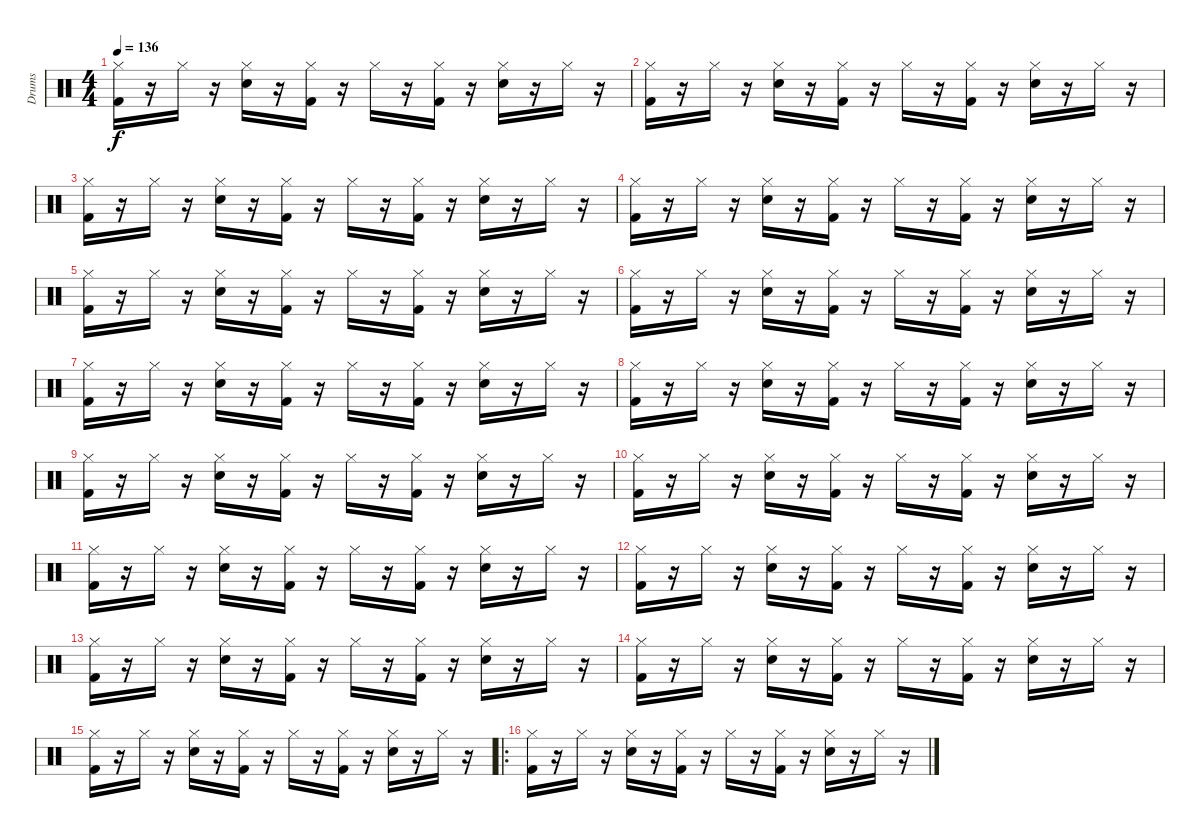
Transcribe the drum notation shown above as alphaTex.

\track ("Drums" "Drums") {instrument percussion}
\staff {score}
\articulation defaults
\ts (4 4)
\tempo 136
\clef neutral
\ks c
("Kick (hit) 2" "Hi-Hat (closed)").16{dy f} r.16 "Hi-Hat (closed)".16 r.16 ("Electric Snare (hit)" "Hi-Hat (closed)").16 r.16 ("Kick (hit) 2" "Hi-Hat (closed)").16 r.16 "Hi-Hat (closed)".16 r.16 ("Kick (hit) 2" "Hi-Hat (closed)").16 r.16 ("Electric Snare (hit)" "Hi-Hat (closed)").16 r.16 "Hi-Hat (closed)".16 r.16 |
("Kick (hit) 2" "Hi-Hat (closed)").16 r.16 "Hi-Hat (closed)".16 r.16 ("Electric Snare (hit)" "Hi-Hat (closed)").16 r.16 ("Kick (hit) 2" "Hi-Hat (closed)").16 r.16 "Hi-Hat (closed)".16 r.16 ("Kick (hit) 2" "Hi-Hat (closed)").16 r.16 ("Electric Snare (hit)" "Hi-Hat (closed)").16 r.16 "Hi-Hat (closed)".16 r.16 |
("Kick (hit) 2" "Hi-Hat (closed)").16 r.16 "Hi-Hat (closed)".16 r.16 ("Electric Snare (hit)" "Hi-Hat (closed)").16 r.16 ("Kick (hit) 2" "Hi-Hat (closed)").16 r.16 "Hi-Hat (closed)".16 r.16 ("Kick (hit) 2" "Hi-Hat (closed)").16 r.16 ("Electric Snare (hit)" "Hi-Hat (closed)").16 r.16 "Hi-Hat (closed)".16 r.16 |
("Kick (hit) 2" "Hi-Hat (closed)").16 r.16 "Hi-Hat (closed)".16 r.16 ("Electric Snare (hit)" "Hi-Hat (closed)").16 r.16 ("Kick (hit) 2" "Hi-Hat (closed)").16 r.16 "Hi-Hat (closed)".16 r.16 ("Kick (hit) 2" "Hi-Hat (closed)").16 r.16 ("Electric Snare (hit)" "Hi-Hat (closed)").16 r.16 "Hi-Hat (closed)".16 r.16 |
("Kick (hit) 2" "Hi-Hat (closed)").16 r.16 "Hi-Hat (closed)".16 r.16 ("Electric Snare (hit)" "Hi-Hat (closed)").16 r.16 ("Kick (hit) 2" "Hi-Hat (closed)").16 r.16 "Hi-Hat (closed)".16 r.16 ("Kick (hit) 2" "Hi-Hat (closed)").16 r.16 ("Electric Snare (hit)" "Hi-Hat (closed)").16 r.16 "Hi-Hat (closed)".16 r.16 |
("Kick (hit) 2" "Hi-Hat (closed)").16 r.16 "Hi-Hat (closed)".16 r.16 ("Electric Snare (hit)" "Hi-Hat (closed)").16 r.16 ("Kick (hit) 2" "Hi-Hat (closed)").16 r.16 "Hi-Hat (closed)".16 r.16 ("Kick (hit) 2" "Hi-Hat (closed)").16 r.16 ("Electric Snare (hit)" "Hi-Hat (closed)").16 r.16 "Hi-Hat (closed)".16 r.16 |
("Kick (hit) 2" "Hi-Hat (closed)").16 r.16 "Hi-Hat (closed)".16 r.16 ("Electric Snare (hit)" "Hi-Hat (closed)").16 r.16 ("Kick (hit) 2" "Hi-Hat (closed)").16 r.16 "Hi-Hat (closed)".16 r.16 ("Kick (hit) 2" "Hi-Hat (closed)").16 r.16 ("Electric Snare (hit)" "Hi-Hat (closed)").16 r.16 "Hi-Hat (closed)".16 r.16 |
("Kick (hit) 2" "Hi-Hat (closed)").16 r.16 "Hi-Hat (closed)".16 r.16 ("Electric Snare (hit)" "Hi-Hat (closed)").16 r.16 ("Kick (hit) 2" "Hi-Hat (closed)").16 r.16 "Hi-Hat (closed)".16 r.16 ("Kick (hit) 2" "Hi-Hat (closed)").16 r.16 ("Electric Snare (hit)" "Hi-Hat (closed)").16 r.16 "Hi-Hat (closed)".16 r.16 |
("Kick (hit) 2" "Hi-Hat (closed)").16 r.16 "Hi-Hat (closed)".16 r.16 ("Electric Snare (hit)" "Hi-Hat (closed)").16 r.16 ("Kick (hit) 2" "Hi-Hat (closed)").16 r.16 "Hi-Hat (closed)".16 r.16 ("Kick (hit) 2" "Hi-Hat (closed)").16 r.16 ("Electric Snare (hit)" "Hi-Hat (closed)").16 r.16 "Hi-Hat (closed)".16 r.16 |
("Kick (hit) 2" "Hi-Hat (closed)").16 r.16 "Hi-Hat (closed)".16 r.16 ("Electric Snare (hit)" "Hi-Hat (closed)").16 r.16 ("Kick (hit) 2" "Hi-Hat (closed)").16 r.16 "Hi-Hat (closed)".16 r.16 ("Kick (hit) 2" "Hi-Hat (closed)").16 r.16 ("Electric Snare (hit)" "Hi-Hat (closed)").16 r.16 "Hi-Hat (closed)".16 r.16 |
("Kick (hit) 2" "Hi-Hat (closed)").16 r.16 "Hi-Hat (closed)".16 r.16 ("Electric Snare (hit)" "Hi-Hat (closed)").16 r.16 ("Kick (hit) 2" "Hi-Hat (closed)").16 r.16 "Hi-Hat (closed)".16 r.16 ("Kick (hit) 2" "Hi-Hat (closed)").16 r.16 ("Electric Snare (hit)" "Hi-Hat (closed)").16 r.16 "Hi-Hat (closed)".16 r.16 |
("Kick (hit) 2" "Hi-Hat (closed)").16 r.16 "Hi-Hat (closed)".16 r.16 ("Electric Snare (hit)" "Hi-Hat (closed)").16 r.16 ("Kick (hit) 2" "Hi-Hat (closed)").16 r.16 "Hi-Hat (closed)".16 r.16 ("Kick (hit) 2" "Hi-Hat (closed)").16 r.16 ("Electric Snare (hit)" "Hi-Hat (closed)").16 r.16 "Hi-Hat (closed)".16 r.16 |
("Kick (hit) 2" "Hi-Hat (closed)").16 r.16 "Hi-Hat (closed)".16 r.16 ("Electric Snare (hit)" "Hi-Hat (closed)").16 r.16 ("Kick (hit) 2" "Hi-Hat (closed)").16 r.16 "Hi-Hat (closed)".16 r.16 ("Kick (hit) 2" "Hi-Hat (closed)").16 r.16 ("Electric Snare (hit)" "Hi-Hat (closed)").16 r.16 "Hi-Hat (closed)".16 r.16 |
("Kick (hit) 2" "Hi-Hat (closed)").16 r.16 "Hi-Hat (closed)".16 r.16 ("Electric Snare (hit)" "Hi-Hat (closed)").16 r.16 ("Kick (hit) 2" "Hi-Hat (closed)").16 r.16 "Hi-Hat (closed)".16 r.16 ("Kick (hit) 2" "Hi-Hat (closed)").16 r.16 ("Electric Snare (hit)" "Hi-Hat (closed)").16 r.16 "Hi-Hat (closed)".16 r.16 |
("Kick (hit) 2" "Hi-Hat (closed)").16 r.16 "Hi-Hat (closed)".16 r.16 ("Electric Snare (hit)" "Hi-Hat (closed)").16 r.16 ("Kick (hit) 2" "Hi-Hat (closed)").16 r.16 "Hi-Hat (closed)".16 r.16 ("Kick (hit) 2" "Hi-Hat (closed)").16 r.16 ("Electric Snare (hit)" "Hi-Hat (closed)").16 r.16 "Hi-Hat (closed)".16 r.16 |
\ro
("Kick (hit) 2" "Hi-Hat (closed)").16 r.16 "Hi-Hat (closed)".16 r.16 ("Electric Snare (hit)" "Hi-Hat (closed)").16 r.16 ("Kick (hit) 2" "Hi-Hat (closed)").16 r.16 "Hi-Hat (closed)".16 r.16 ("Kick (hit) 2" "Hi-Hat (closed)").16 r.16 ("Electric Snare (hit)" "Hi-Hat (closed)").16 r.16 "Hi-Hat (closed)".16 r.16
